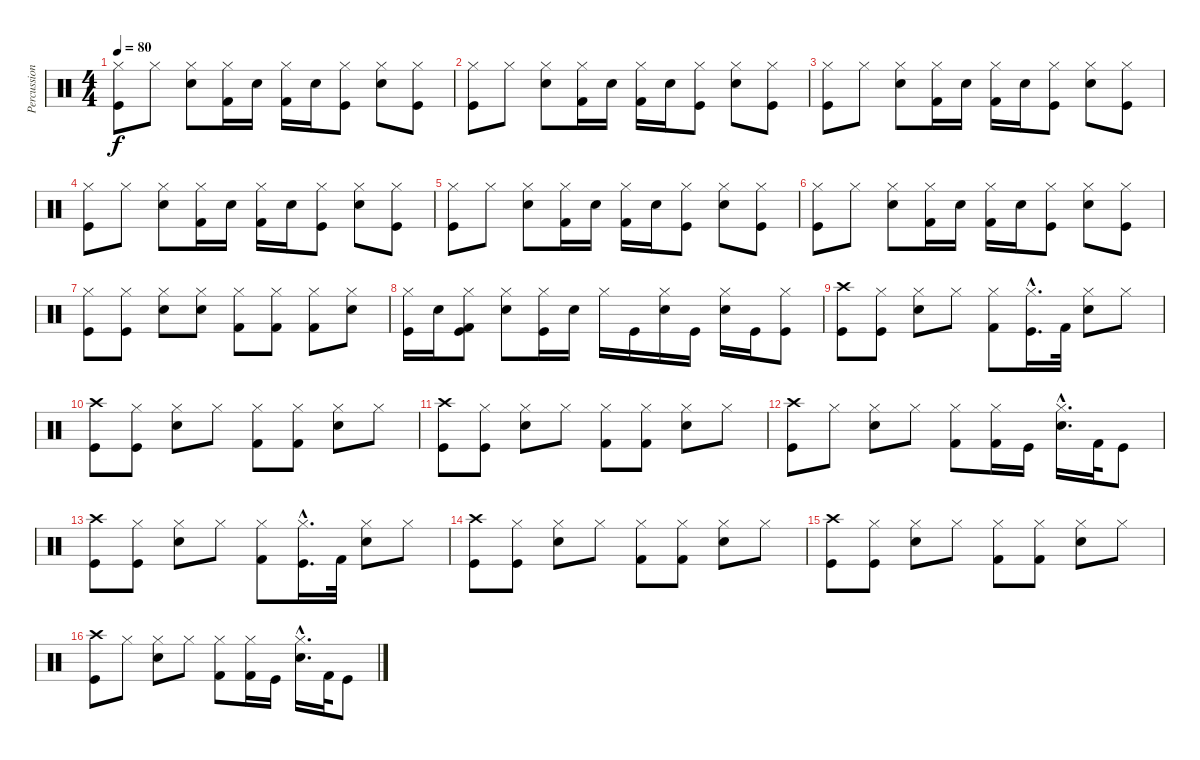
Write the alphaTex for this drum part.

\track ("Percussions" "Percussion") {instrument percussion}
\staff {score}
\articulation defaults
\ts (4 4)
\tempo 80
\clef neutral
\ks c
("Hi-Hat (closed)" "Kick (hit)").8{dy f} "Hi-Hat (closed)".8 ("Hi-Hat (closed)" "Snare (hit) 2").8 ("Hi-Hat (closed)" "Kick (hit) 2").16 "Snare (hit) 2".16 ("Hi-Hat (closed)" "Kick (hit) 2").16 "Snare (hit) 2".16 ("Hi-Hat (closed)" "Kick (hit)").8 ("Hi-Hat (closed)" "Snare (hit) 2").8 ("Hi-Hat (closed)" "Kick (hit)").8 |
("Hi-Hat (closed)" "Kick (hit)").8 "Hi-Hat (closed)".8 ("Hi-Hat (closed)" "Snare (hit) 2").8 ("Hi-Hat (closed)" "Kick (hit) 2").16 "Snare (hit) 2".16 ("Hi-Hat (closed)" "Kick (hit) 2").16 "Snare (hit) 2".16 ("Hi-Hat (closed)" "Kick (hit)").8 ("Hi-Hat (closed)" "Snare (hit) 2").8 ("Hi-Hat (closed)" "Kick (hit)").8 |
("Hi-Hat (closed)" "Kick (hit)").8 "Hi-Hat (closed)".8 ("Hi-Hat (closed)" "Snare (hit) 2").8 ("Hi-Hat (closed)" "Kick (hit) 2").16 "Snare (hit) 2".16 ("Hi-Hat (closed)" "Kick (hit) 2").16 "Snare (hit) 2".16 ("Hi-Hat (closed)" "Kick (hit)").8 ("Hi-Hat (closed)" "Snare (hit) 2").8 ("Hi-Hat (closed)" "Kick (hit)").8 |
("Hi-Hat (closed)" "Kick (hit)").8 "Hi-Hat (closed)".8 ("Hi-Hat (closed)" "Snare (hit) 2").8 ("Hi-Hat (closed)" "Kick (hit) 2").16 "Snare (hit) 2".16 ("Hi-Hat (closed)" "Kick (hit) 2").16 "Snare (hit) 2".16 ("Hi-Hat (closed)" "Kick (hit)").8 ("Hi-Hat (closed)" "Snare (hit) 2").8 ("Hi-Hat (closed)" "Kick (hit)").8 |
("Hi-Hat (closed)" "Kick (hit)").8 "Hi-Hat (closed)".8 ("Hi-Hat (closed)" "Snare (hit) 2").8 ("Hi-Hat (closed)" "Kick (hit) 2").16 "Snare (hit) 2".16 ("Hi-Hat (closed)" "Kick (hit) 2").16 "Snare (hit) 2".16 ("Hi-Hat (closed)" "Kick (hit)").8 ("Hi-Hat (closed)" "Snare (hit) 2").8 ("Hi-Hat (closed)" "Kick (hit)").8 |
("Hi-Hat (closed)" "Kick (hit)").8 "Hi-Hat (closed)".8 ("Hi-Hat (closed)" "Snare (hit) 2").8 ("Hi-Hat (closed)" "Kick (hit) 2").16 "Snare (hit) 2".16 ("Hi-Hat (closed)" "Kick (hit) 2").16 "Snare (hit) 2".16 ("Hi-Hat (closed)" "Kick (hit)").8 ("Hi-Hat (closed)" "Snare (hit) 2").8 ("Hi-Hat (closed)" "Kick (hit)").8 |
("Hi-Hat (closed)" "Kick (hit)").8 ("Hi-Hat (closed)" "Kick (hit)").8 ("Hi-Hat (closed)" "Snare (hit) 2").8 ("Hi-Hat (closed)" "Snare (hit) 2").8 ("Hi-Hat (closed)" "Kick (hit) 2").8 ("Hi-Hat (closed)" "Kick (hit) 2").8 ("Hi-Hat (closed)" "Kick (hit) 2").8 ("Hi-Hat (closed)" "Snare (hit) 2").8 |
("Hi-Hat (closed)" "Kick (hit)").16 "Snare (hit) 2".16 ("Hi-Hat (closed)" "Kick (hit)" "Kick (hit) 2").8 ("Hi-Hat (closed)" "Snare (hit) 2").8 ("Hi-Hat (closed)" "Kick (hit)").16 "Snare (hit) 2".16 "Hi-Hat (closed)".16 "Kick (hit)".16 ("Hi-Hat (closed)" "Snare (hit) 2").16 "Kick (hit)".16 ("Hi-Hat (closed)" "Snare (hit) 2").16 "Kick (hit)".16 ("Hi-Hat (closed)" "Kick (hit)").8 |
("Crash high (hit)" "Kick (hit)").8 ("Hi-Hat (closed)" "Kick (hit)").8 ("Hi-Hat (closed)" "Snare (hit) 2").8 "Hi-Hat (closed)".8 ("Hi-Hat (closed)" "Kick (hit) 2").8 ("Hi-Hat (closed)"{hac} "Kick (hit)"{hac}).16{d} "Kick (hit) 2".32 ("Hi-Hat (closed)" "Snare (hit) 2").8 "Hi-Hat (closed)".8 |
("Crash high (hit)" "Kick (hit)").8 ("Hi-Hat (closed)" "Kick (hit)").8 ("Hi-Hat (closed)" "Snare (hit) 2").8 "Hi-Hat (closed)".8 ("Hi-Hat (closed)" "Kick (hit) 2").8 ("Hi-Hat (closed)" "Kick (hit) 2").8 ("Hi-Hat (closed)" "Snare (hit) 2").8 "Hi-Hat (closed)".8 |
("Crash high (hit)" "Kick (hit)").8 ("Hi-Hat (closed)" "Kick (hit)").8 ("Hi-Hat (closed)" "Snare (hit) 2").8 "Hi-Hat (closed)".8 ("Hi-Hat (closed)" "Kick (hit) 2").8 ("Hi-Hat (closed)" "Kick (hit) 2").8 ("Hi-Hat (closed)" "Snare (hit) 2").8 "Hi-Hat (closed)".8 |
("Crash high (hit)" "Kick (hit)").8 "Hi-Hat (closed)".8 ("Hi-Hat (closed)" "Snare (hit) 2").8 "Hi-Hat (closed)".8 ("Hi-Hat (closed)" "Kick (hit) 2").8 ("Hi-Hat (closed)" "Kick (hit) 2").16 "Kick (hit)".16 ("Hi-Hat (closed)"{hac} "Snare (hit) 2"{hac}).16{d} "Kick (hit) 2".32 "Kick (hit)".8 |
("Crash high (hit)" "Kick (hit)").8 ("Hi-Hat (closed)" "Kick (hit)").8 ("Hi-Hat (closed)" "Snare (hit) 2").8 "Hi-Hat (closed)".8 ("Hi-Hat (closed)" "Kick (hit) 2").8 ("Hi-Hat (closed)"{hac} "Kick (hit)"{hac}).16{d} "Kick (hit) 2".32 ("Hi-Hat (closed)" "Snare (hit) 2").8 "Hi-Hat (closed)".8 |
("Crash high (hit)" "Kick (hit)").8 ("Hi-Hat (closed)" "Kick (hit)").8 ("Hi-Hat (closed)" "Snare (hit) 2").8 "Hi-Hat (closed)".8 ("Hi-Hat (closed)" "Kick (hit) 2").8 ("Hi-Hat (closed)" "Kick (hit) 2").8 ("Hi-Hat (closed)" "Snare (hit) 2").8 "Hi-Hat (closed)".8 |
("Crash high (hit)" "Kick (hit)").8 ("Hi-Hat (closed)" "Kick (hit)").8 ("Hi-Hat (closed)" "Snare (hit) 2").8 "Hi-Hat (closed)".8 ("Hi-Hat (closed)" "Kick (hit) 2").8 ("Hi-Hat (closed)" "Kick (hit) 2").8 ("Hi-Hat (closed)" "Snare (hit) 2").8 "Hi-Hat (closed)".8 |
("Crash high (hit)" "Kick (hit)").8 "Hi-Hat (closed)".8 ("Hi-Hat (closed)" "Snare (hit) 2").8 "Hi-Hat (closed)".8 ("Hi-Hat (closed)" "Kick (hit) 2").8 ("Hi-Hat (closed)" "Kick (hit) 2").16 "Kick (hit)".16 ("Hi-Hat (closed)"{hac} "Snare (hit) 2"{hac}).16{d} "Kick (hit) 2".32 "Kick (hit)".8
